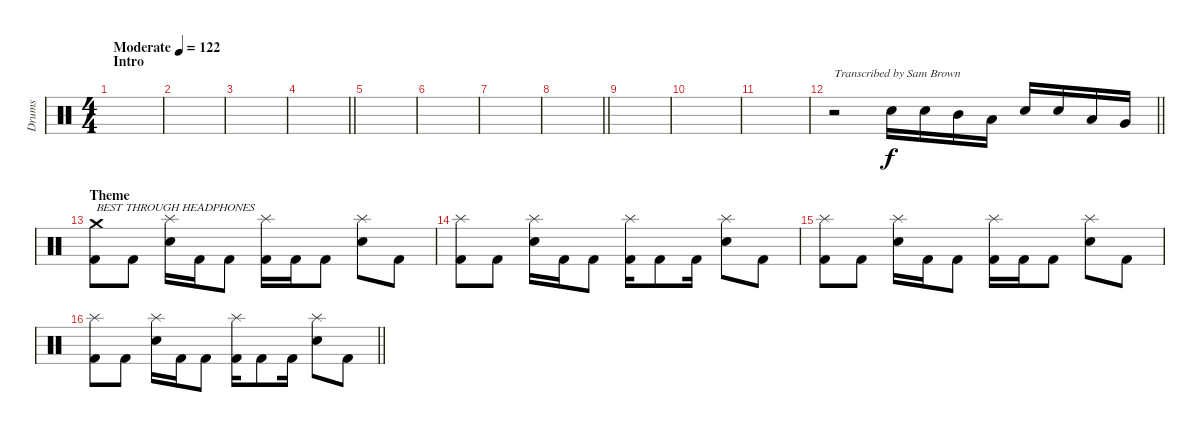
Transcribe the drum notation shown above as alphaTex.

\track ("Drums" "Drums") {instrument percussion}
\staff {score}
\articulation defaults
\ts (4 4)
\section ("" "Intro")
\tempo (122 "Moderate")
\clef neutral
\ks c
|
|
|
\barLineRight lightlight
|
\section ("" "")
|
|
|
\barLineRight lightlight
|
\section ("" "")
|
|
|
\barLineRight lightlight
r.2{txt "Transcribed by Sam Brown"} "Snare (hit) 2".16 "Snare (hit) 2".16 "Mid Tom (hit)".16 "Low Tom (hit)".16 "Snare (hit) 2".16 "Snare (hit) 2".16 "Low Tom (hit)".16 "Very Low Tom (hit)".16 |
\section ("" "Theme")
("Kick (hit) 2" "Crash medium (hit)").8{txt "BEST THROUGH HEADPHONES"} "Kick (hit) 2".8 ("Snare (hit) 2" "Splash (hit)").16 "Kick (hit) 2".16 "Kick (hit) 2".8 ("Kick (hit) 2" "Splash (hit)").16 "Kick (hit) 2".16 "Kick (hit) 2".8 ("Snare (hit) 2" "Splash (hit)").8 "Kick (hit) 2".8 |
("Kick (hit) 2" "Splash (hit)").8 "Kick (hit) 2".8 ("Snare (hit) 2" "Splash (hit)").16 "Kick (hit) 2".16 "Kick (hit) 2".8 ("Kick (hit) 2" "Splash (hit)").16 "Kick (hit) 2".8 "Kick (hit) 2".16 ("Snare (hit) 2" "Splash (hit)").8 "Kick (hit) 2".8 |
("Kick (hit) 2" "Splash (hit)").8 "Kick (hit) 2".8 ("Snare (hit) 2" "Splash (hit)").16 "Kick (hit) 2".16 "Kick (hit) 2".8 ("Kick (hit) 2" "Splash (hit)").16 "Kick (hit) 2".16 "Kick (hit) 2".8 ("Snare (hit) 2" "Splash (hit)").8 "Kick (hit) 2".8 |
\barLineRight lightlight
("Kick (hit) 2" "Splash (hit)").8 "Kick (hit) 2".8 ("Snare (hit) 2" "Splash (hit)").16 "Kick (hit) 2".16 "Kick (hit) 2".8 ("Kick (hit) 2" "Splash (hit)").16 "Kick (hit) 2".8 "Kick (hit) 2".16 ("Snare (hit) 2" "Splash (hit)").8 "Kick (hit) 2".8
